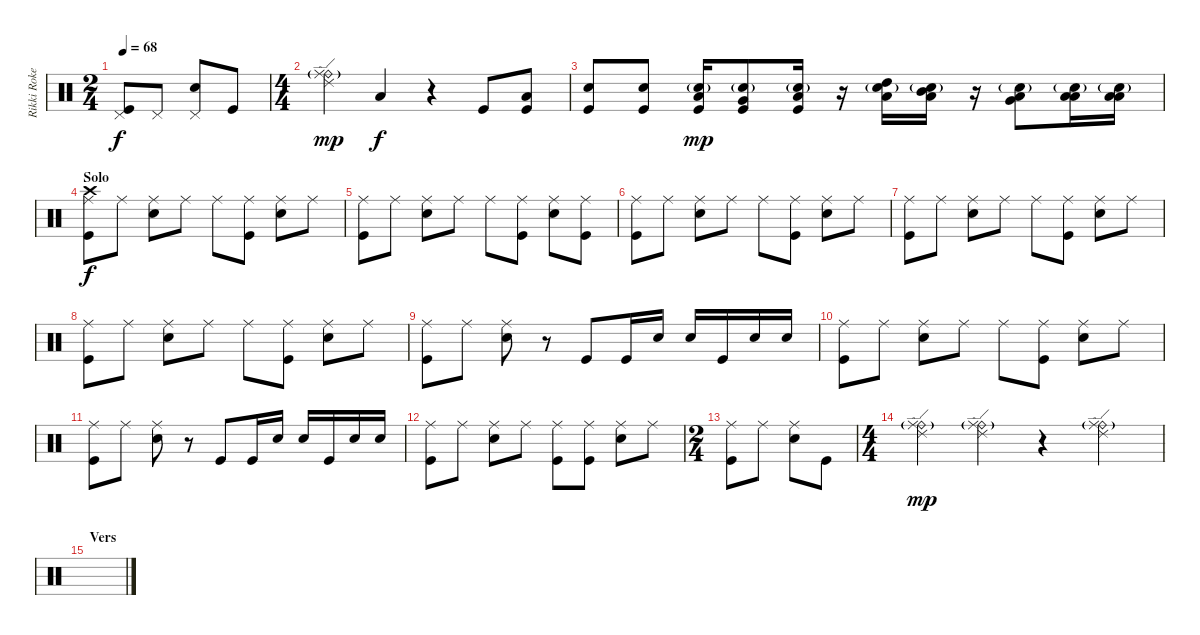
\track ("Rikki Rokett" "Rikki Roke") {instrument percussion}
\staff {score}
\articulation defaults
\ts (2 4)
\tempo 68
\clef neutral
\ks c
("Pedal Hi-Hat (hit)" "Kick (hit)").8{dy f} "Pedal Hi-Hat (hit)".8 ("Pedal Hi-Hat (hit)" "Snare (hit) 2").8 "Kick (hit)".8 |
\ts (4 4)
("Ride (bell)"{g} "Ride (edge) 2" "Ride (middle)").4{dy mp} "Low Tom (hit)".4{dy f} r.4 "Kick (hit)".8 ("Low Tom (hit)" "Kick (hit)").8 |
("Snare (hit) 2" "Kick (hit)").8 ("Snare (hit) 2" "Kick (hit)").8 ("Kick (hit)" "Low Tom (hit)" "Snare (hit) 2"{g}).16{dy mp} ("Kick (hit)" "Very Low Tom (hit)" "Snare (hit) 2"{g}).8 ("Kick (hit)" "Low Floor Tom (hit)" "Snare (hit) 2"{g}).16 r.16 ("High Tom (hit)" "Low Floor Tom (hit)" "Snare (hit) 2"{g}).16 ("Mid Tom (hit)" "Low Floor Tom (hit)" "Snare (hit) 2"{g}).16 r.16 ("Very Low Tom (hit)" "Low Floor Tom (hit)" "Snare (hit) 2"{g}).8 ("Low Floor Tom (hit)" "Low Floor Tom (hit)" "Snare (hit) 2"{g}).16 ("Low Floor Tom (hit)" "Low Floor Tom (hit)" "Snare (hit) 2"{g}).16 |
\section ("" "Solo")
("Ride (middle)" "Crash high (hit)" "Kick (hit)").8{dy f} "Ride (middle)".8 ("Ride (middle)" "Snare (hit) 2").8 "Ride (middle)".8 "Ride (middle)".8 ("Ride (middle)" "Kick (hit)").8 ("Ride (middle)" "Snare (hit) 2").8 "Ride (middle)".8 |
("Ride (middle)" "Kick (hit)").8 "Ride (middle)".8 ("Ride (middle)" "Snare (hit) 2").8 "Ride (middle)".8 "Ride (middle)".8 ("Ride (middle)" "Kick (hit)").8 ("Ride (middle)" "Snare (hit) 2").8 ("Ride (middle)" "Kick (hit)").8 |
("Ride (middle)" "Kick (hit)").8 "Ride (middle)".8 ("Ride (middle)" "Snare (hit) 2").8 "Ride (middle)".8 "Ride (middle)".8 ("Ride (middle)" "Kick (hit)").8 ("Ride (middle)" "Snare (hit) 2").8 "Ride (middle)".8 |
("Ride (middle)" "Kick (hit)").8 "Ride (middle)".8 ("Ride (middle)" "Snare (hit) 2").8 "Ride (middle)".8 "Ride (middle)".8 ("Ride (middle)" "Kick (hit)").8 ("Ride (middle)" "Snare (hit) 2").8 "Ride (middle)".8 |
("Ride (middle)" "Kick (hit)").8 "Ride (middle)".8 ("Ride (middle)" "Snare (hit) 2").8 "Ride (middle)".8 "Ride (middle)".8 ("Ride (middle)" "Kick (hit)").8 ("Ride (middle)" "Snare (hit) 2").8 "Ride (middle)".8 |
("Ride (middle)" "Kick (hit)").8 "Ride (middle)".8 ("Ride (middle)" "Snare (hit) 2").8 r.8 "Kick (hit)".8 "Kick (hit)".16 "Snare (hit) 2".16 "Snare (hit) 2".16 "Kick (hit)".16 "Snare (hit) 2".16 "Snare (hit) 2".16 |
("Ride (middle)" "Kick (hit)").8 "Ride (middle)".8 ("Ride (middle)" "Snare (hit) 2").8 "Ride (middle)".8 "Ride (middle)".8 ("Ride (middle)" "Kick (hit)").8 ("Ride (middle)" "Snare (hit) 2").8 "Ride (middle)".8 |
("Ride (middle)" "Kick (hit)").8 "Ride (middle)".8 ("Ride (middle)" "Snare (hit) 2").8 r.8 "Kick (hit)".8 "Kick (hit)".16 "Snare (hit) 2".16 "Snare (hit) 2".16 "Kick (hit)".16 "Snare (hit) 2".16 "Snare (hit) 2".16 |
("Ride (middle)" "Kick (hit)").8 "Ride (middle)".8 ("Ride (middle)" "Snare (hit) 2").8 "Ride (middle)".8 ("Ride (middle)" "Kick (hit)").8 ("Ride (middle)" "Kick (hit)").8 ("Ride (middle)" "Snare (hit) 2").8 "Ride (middle)".8 |
\ts (2 4)
("Ride (middle)" "Kick (hit)").8 "Ride (middle)".8 ("Ride (middle)" "Snare (hit) 2").8 "Kick (hit)".8 |
\ts (4 4)
("Ride (bell)"{g} "Ride (edge) 2" "Ride (middle)").4{dy mp} ("Ride (bell)"{g} "Ride (edge) 2" "Ride (middle)").4 r.4 ("Ride (bell)"{g} "Ride (edge) 2" "Ride (middle)").4 |
\section ("" "Vers")
